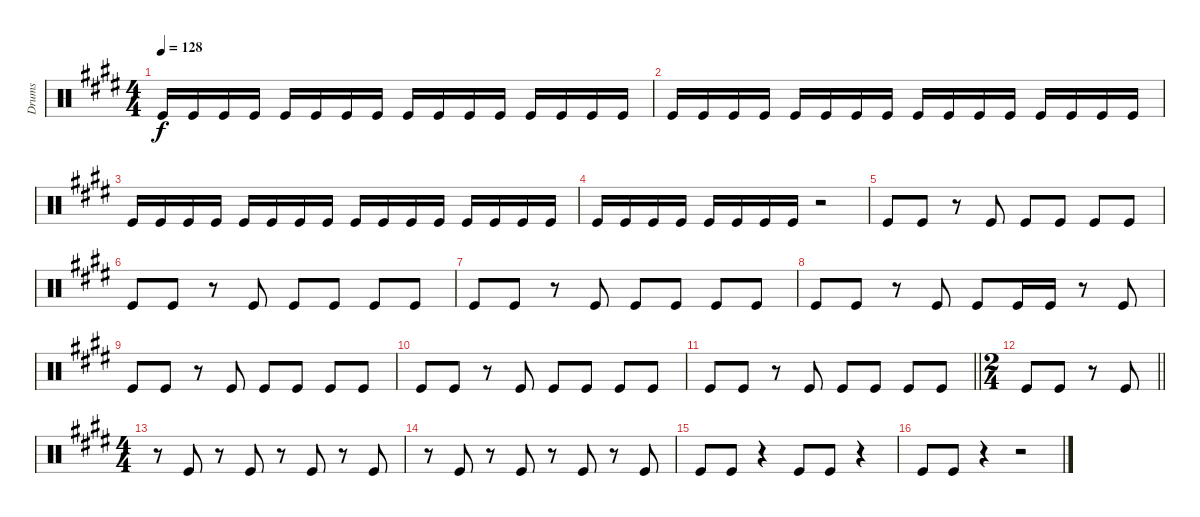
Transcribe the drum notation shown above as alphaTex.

\track ("Drums" "Drums") {instrument percussion}
\staff {score}
\articulation defaults
\ts (4 4)
\tempo 128
\clef neutral
\ks e "Kick (hit)".16{dy f} "Kick (hit)".16 "Kick (hit)".16 "Kick (hit)".16 "Kick (hit)".16 "Kick (hit)".16 "Kick (hit)".16 "Kick (hit)".16 "Kick (hit)".16 "Kick (hit)".16 "Kick (hit)".16 "Kick (hit)".16 "Kick (hit)".16 "Kick (hit)".16 "Kick (hit)".16 "Kick (hit)".16
|
"Kick (hit)".16 "Kick (hit)".16 "Kick (hit)".16 "Kick (hit)".16 "Kick (hit)".16 "Kick (hit)".16 "Kick (hit)".16 "Kick (hit)".16 "Kick (hit)".16 "Kick (hit)".16 "Kick (hit)".16 "Kick (hit)".16 "Kick (hit)".16 "Kick (hit)".16 "Kick (hit)".16 "Kick (hit)".16 |
"Kick (hit)".16 "Kick (hit)".16 "Kick (hit)".16 "Kick (hit)".16 "Kick (hit)".16 "Kick (hit)".16 "Kick (hit)".16 "Kick (hit)".16 "Kick (hit)".16 "Kick (hit)".16 "Kick (hit)".16 "Kick (hit)".16 "Kick (hit)".16 "Kick (hit)".16 "Kick (hit)".16 "Kick (hit)".16 |
"Kick (hit)".16 "Kick (hit)".16 "Kick (hit)".16 "Kick (hit)".16 "Kick (hit)".16 "Kick (hit)".16 "Kick (hit)".16 "Kick (hit)".16 r.2 |
"Kick (hit)".8 "Kick (hit)".8 r.8 "Kick (hit)".8 "Kick (hit)".8 "Kick (hit)".8 "Kick (hit)".8 "Kick (hit)".8 |
"Kick (hit)".8 "Kick (hit)".8 r.8 "Kick (hit)".8 "Kick (hit)".8 "Kick (hit)".8 "Kick (hit)".8 "Kick (hit)".8 |
"Kick (hit)".8 "Kick (hit)".8 r.8 "Kick (hit)".8 "Kick (hit)".8 "Kick (hit)".8 "Kick (hit)".8 "Kick (hit)".8 |
"Kick (hit)".8 "Kick (hit)".8 r.8 "Kick (hit)".8 "Kick (hit)".8 "Kick (hit)".16 "Kick (hit)".16 r.8 "Kick (hit)".8 |
"Kick (hit)".8 "Kick (hit)".8 r.8 "Kick (hit)".8 "Kick (hit)".8 "Kick (hit)".8 "Kick (hit)".8 "Kick (hit)".8 |
"Kick (hit)".8 "Kick (hit)".8 r.8 "Kick (hit)".8 "Kick (hit)".8 "Kick (hit)".8 "Kick (hit)".8 "Kick (hit)".8 |
\barLineRight lightlight "Kick (hit)".8 "Kick (hit)".8
r.8 "Kick (hit)".8 "Kick (hit)".8 "Kick (hit)".8 "Kick (hit)".8 "Kick (hit)".8 |
\ts (2 4)
\barLineRight lightlight "Kick (hit)".8 "Kick (hit)".8
r.8 "Kick (hit)".8 |
\ts (4 4)
r.8 "Kick (hit)".8 r.8 "Kick (hit)".8 r.8 "Kick (hit)".8 r.8 "Kick (hit)".8 |
r.8 "Kick (hit)".8 r.8 "Kick (hit)".8 r.8 "Kick (hit)".8 r.8 "Kick (hit)".8 |
"Kick (hit)".8 "Kick (hit)".8 r.4 "Kick (hit)".8 "Kick (hit)".8 r.4 |
"Kick (hit)".8 "Kick (hit)".8 r.4 r.2
